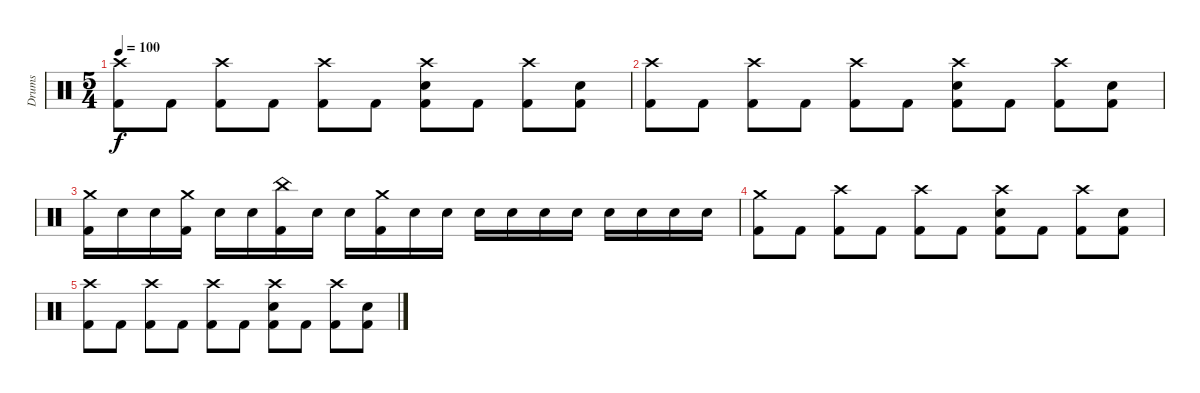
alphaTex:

\track ("Drums" "Drums") {instrument percussion}
\staff {score}
\articulation defaults
\ts (5 4)
\tempo 100
\clef neutral
\ks c
("Crash high (hit)" "Kick (hit) 2").8{dy f} "Kick (hit) 2".8 ("Crash high (hit)" "Kick (hit) 2").8 "Kick (hit) 2".8 ("Crash high (hit)" "Kick (hit) 2").8 "Kick (hit) 2".8 ("Crash high (hit)" "Snare (hit) 2" "Kick (hit) 2").8 "Kick (hit) 2".8 ("Crash high (hit)" "Kick (hit) 2").8 ("Snare (hit) 2" "Kick (hit) 2").8 |
("Crash high (hit)" "Kick (hit) 2").8 "Kick (hit) 2".8 ("Crash high (hit)" "Kick (hit) 2").8 "Kick (hit) 2".8 ("Crash high (hit)" "Kick (hit) 2").8 "Kick (hit) 2".8 ("Crash high (hit)" "Snare (hit) 2" "Kick (hit) 2").8 "Kick (hit) 2".8 ("Crash high (hit)" "Kick (hit) 2").8 ("Snare (hit) 2" "Kick (hit) 2").8 |
("Crash medium (hit)" "Kick (hit) 2").16{volume 0} "Snare (hit) 2".16 "Snare (hit) 2".16 ("Crash medium (hit)" "Kick (hit) 2").16 "Snare (hit) 2".16 "Snare (hit) 2".16 ("China (hit)" "Kick (hit) 2").16 "Snare (hit) 2".16 "Snare (hit) 2".16 ("Crash medium (hit)" "Kick (hit) 2").16 "Snare (hit) 2".16 "Snare (hit) 2".16 "Snare (hit) 2".16 "Snare (hit) 2".16 "Snare (hit) 2".16 "Snare (hit) 2".16 "Snare (hit) 2".16 "Snare (hit) 2".16 "Snare (hit) 2".16 "Snare (hit) 2".16 |
("Crash medium (hit)" "Kick (hit) 2").8 "Kick (hit) 2".8 ("Crash high (hit)" "Kick (hit) 2").8 "Kick (hit) 2".8 ("Crash high (hit)" "Kick (hit) 2").8 "Kick (hit) 2".8 ("Crash high (hit)" "Snare (hit) 2" "Kick (hit) 2").8 "Kick (hit) 2".8 ("Crash high (hit)" "Kick (hit) 2").8 ("Snare (hit) 2" "Kick (hit) 2").8 |
("Crash high (hit)" "Kick (hit) 2").8 "Kick (hit) 2".8 ("Crash high (hit)" "Kick (hit) 2").8 "Kick (hit) 2".8 ("Crash high (hit)" "Kick (hit) 2").8 "Kick (hit) 2".8 ("Crash high (hit)" "Snare (hit) 2" "Kick (hit) 2").8 "Kick (hit) 2".8 ("Crash high (hit)" "Kick (hit) 2").8 ("Snare (hit) 2" "Kick (hit) 2").8
